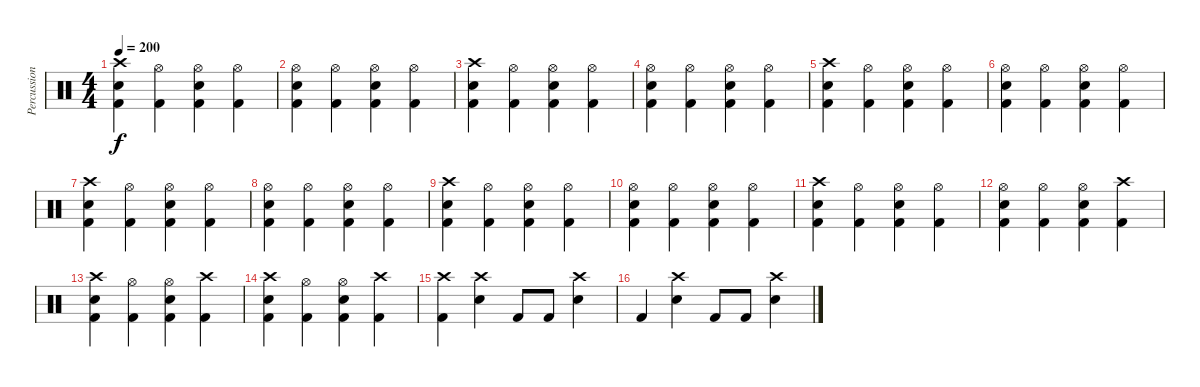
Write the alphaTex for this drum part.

\track ("Percussion" "Percussion") {instrument percussion}
\staff {score}
\articulation defaults
\ts (4 4)
\tempo 200
\clef neutral
\ks c
("Crash high (hit)" "Snare (hit) 2" "Kick (hit) 2").4{dy f} ("Hi-Hat (open)" "Kick (hit) 2").4 ("Hi-Hat (open)" "Snare (hit) 2" "Kick (hit) 2").4 ("Hi-Hat (open)" "Kick (hit) 2").4 |
("Hi-Hat (open)" "Snare (hit) 2" "Kick (hit) 2").4 ("Hi-Hat (open)" "Kick (hit) 2").4 ("Hi-Hat (open)" "Snare (hit) 2" "Kick (hit) 2").4 ("Hi-Hat (open)" "Kick (hit) 2").4 |
("Crash high (hit)" "Snare (hit) 2" "Kick (hit) 2").4 ("Hi-Hat (open)" "Kick (hit) 2").4 ("Hi-Hat (open)" "Snare (hit) 2" "Kick (hit) 2").4 ("Hi-Hat (open)" "Kick (hit) 2").4 |
("Hi-Hat (open)" "Snare (hit) 2" "Kick (hit) 2").4 ("Hi-Hat (open)" "Kick (hit) 2").4 ("Hi-Hat (open)" "Snare (hit) 2" "Kick (hit) 2").4 ("Hi-Hat (open)" "Kick (hit) 2").4 |
("Crash high (hit)" "Snare (hit) 2" "Kick (hit) 2").4 ("Hi-Hat (open)" "Kick (hit) 2").4 ("Hi-Hat (open)" "Snare (hit) 2" "Kick (hit) 2").4 ("Hi-Hat (open)" "Kick (hit) 2").4 |
("Hi-Hat (open)" "Snare (hit) 2" "Kick (hit) 2").4 ("Hi-Hat (open)" "Kick (hit) 2").4 ("Hi-Hat (open)" "Snare (hit) 2" "Kick (hit) 2").4 ("Hi-Hat (open)" "Kick (hit) 2").4 |
("Crash high (hit)" "Snare (hit) 2" "Kick (hit) 2").4 ("Hi-Hat (open)" "Kick (hit) 2").4 ("Hi-Hat (open)" "Snare (hit) 2" "Kick (hit) 2").4 ("Hi-Hat (open)" "Kick (hit) 2").4 |
("Hi-Hat (open)" "Snare (hit) 2" "Kick (hit) 2").4 ("Hi-Hat (open)" "Kick (hit) 2").4 ("Hi-Hat (open)" "Snare (hit) 2" "Kick (hit) 2").4 ("Hi-Hat (open)" "Kick (hit) 2").4 |
("Crash high (hit)" "Snare (hit) 2" "Kick (hit) 2").4 ("Hi-Hat (open)" "Kick (hit) 2").4 ("Hi-Hat (open)" "Snare (hit) 2" "Kick (hit) 2").4 ("Hi-Hat (open)" "Kick (hit) 2").4 |
("Hi-Hat (open)" "Snare (hit) 2" "Kick (hit) 2").4 ("Hi-Hat (open)" "Kick (hit) 2").4 ("Hi-Hat (open)" "Snare (hit) 2" "Kick (hit) 2").4 ("Hi-Hat (open)" "Kick (hit) 2").4 |
("Crash high (hit)" "Snare (hit) 2" "Kick (hit) 2").4 ("Hi-Hat (open)" "Kick (hit) 2").4 ("Hi-Hat (open)" "Snare (hit) 2" "Kick (hit) 2").4 ("Hi-Hat (open)" "Kick (hit) 2").4 |
("Hi-Hat (open)" "Snare (hit) 2" "Kick (hit) 2").4 ("Hi-Hat (open)" "Kick (hit) 2").4 ("Hi-Hat (open)" "Snare (hit) 2" "Kick (hit) 2").4 ("Crash high (hit)" "Kick (hit) 2").4 |
("Crash high (hit)" "Snare (hit) 2" "Kick (hit) 2").4 ("Hi-Hat (open)" "Kick (hit) 2").4 ("Hi-Hat (open)" "Snare (hit) 2" "Kick (hit) 2").4 ("Crash high (hit)" "Kick (hit) 2").4 |
("Crash high (hit)" "Snare (hit) 2" "Kick (hit) 2").4 ("Hi-Hat (open)" "Kick (hit) 2").4 ("Hi-Hat (open)" "Snare (hit) 2" "Kick (hit) 2").4 ("Crash high (hit)" "Kick (hit) 2").4 |
("Crash high (hit)" "Kick (hit) 2").4 ("Crash high (hit)" "Snare (hit) 2").4 "Kick (hit) 2".8 "Kick (hit) 2".8 ("Crash high (hit)" "Snare (hit) 2").4 |
"Kick (hit) 2".4 ("Crash high (hit)" "Snare (hit) 2").4 "Kick (hit) 2".8 "Kick (hit) 2".8 ("Crash high (hit)" "Snare (hit) 2").4
